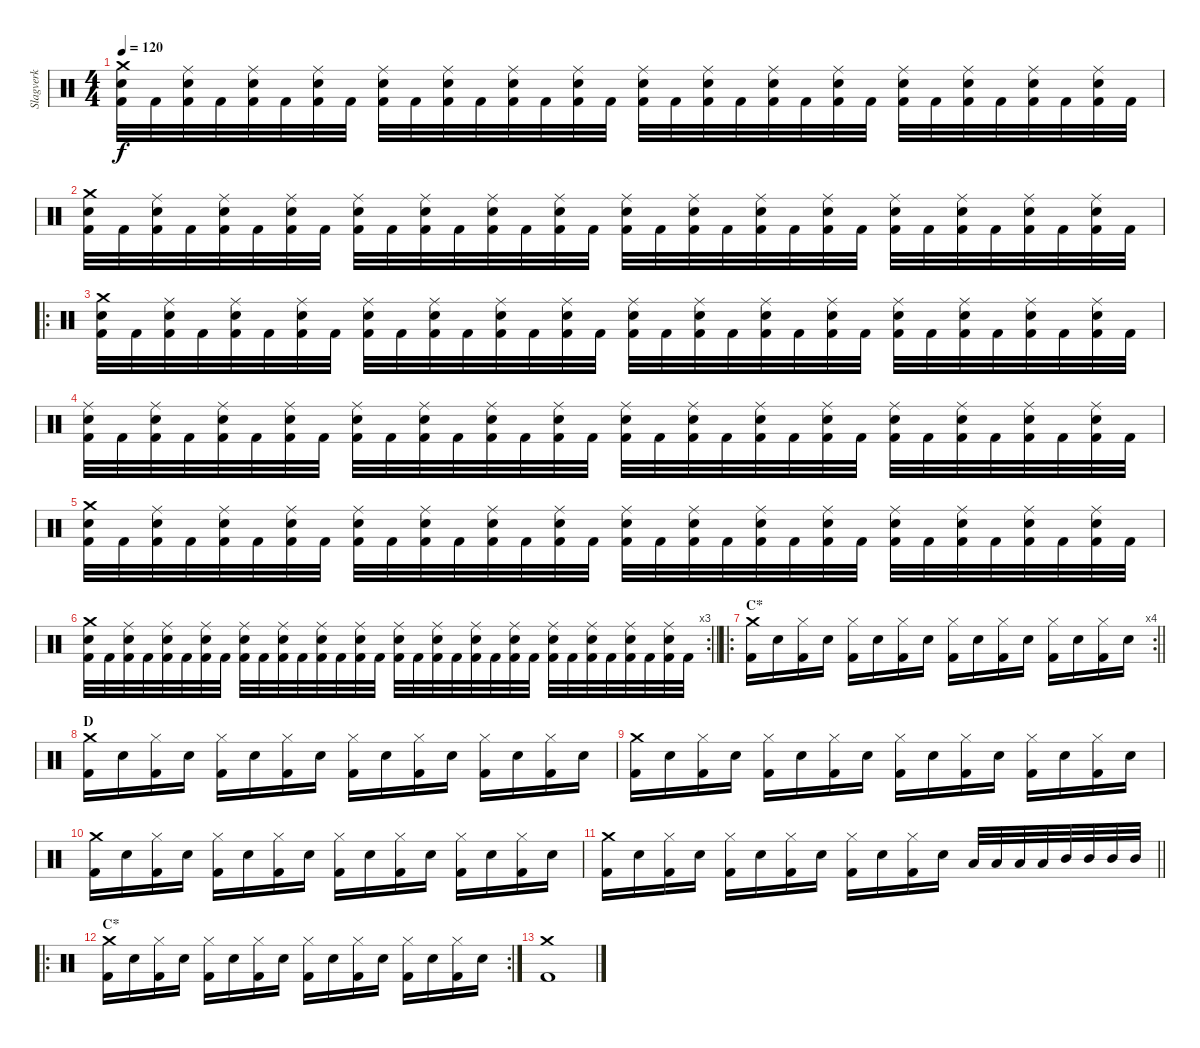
\track ("Slagverk" "Slagverk") {instrument percussion}
\staff {score}
\articulation defaults
\ts (4 4)
\tempo 120
\clef neutral
\ks c
("Crash medium (hit)" "Electric Snare (hit)" "Kick (hit) 2").32{dy f} "Kick (hit) 2".32 ("Ride (middle)" "Electric Snare (hit)" "Kick (hit) 2").32 "Kick (hit) 2".32 ("Ride (middle)" "Electric Snare (hit)" "Kick (hit) 2").32 "Kick (hit) 2".32 ("Ride (middle)" "Electric Snare (hit)" "Kick (hit) 2").32 "Kick (hit) 2".32 ("Ride (middle)" "Electric Snare (hit)" "Kick (hit) 2").32 "Kick (hit) 2".32 ("Ride (middle)" "Electric Snare (hit)" "Kick (hit) 2").32 "Kick (hit) 2".32 ("Ride (middle)" "Electric Snare (hit)" "Kick (hit) 2").32 "Kick (hit) 2".32 ("Ride (middle)" "Electric Snare (hit)" "Kick (hit) 2").32 "Kick (hit) 2".32 ("Ride (middle)" "Electric Snare (hit)" "Kick (hit) 2").32 "Kick (hit) 2".32 ("Ride (middle)" "Electric Snare (hit)" "Kick (hit) 2").32 "Kick (hit) 2".32 ("Ride (middle)" "Electric Snare (hit)" "Kick (hit) 2").32 "Kick (hit) 2".32 ("Ride (middle)" "Electric Snare (hit)" "Kick (hit) 2").32 "Kick (hit) 2".32 ("Ride (middle)" "Electric Snare (hit)" "Kick (hit) 2").32 "Kick (hit) 2".32 ("Ride (middle)" "Electric Snare (hit)" "Kick (hit) 2").32 "Kick (hit) 2".32 ("Ride (middle)" "Electric Snare (hit)" "Kick (hit) 2").32 "Kick (hit) 2".32 ("Ride (middle)" "Electric Snare (hit)" "Kick (hit) 2").32 "Kick (hit) 2".32 |
("Crash medium (hit)" "Electric Snare (hit)" "Kick (hit) 2").32 "Kick (hit) 2".32 ("Ride (middle)" "Electric Snare (hit)" "Kick (hit) 2").32 "Kick (hit) 2".32 ("Ride (middle)" "Electric Snare (hit)" "Kick (hit) 2").32 "Kick (hit) 2".32 ("Ride (middle)" "Electric Snare (hit)" "Kick (hit) 2").32 "Kick (hit) 2".32 ("Ride (middle)" "Electric Snare (hit)" "Kick (hit) 2").32 "Kick (hit) 2".32 ("Ride (middle)" "Electric Snare (hit)" "Kick (hit) 2").32 "Kick (hit) 2".32 ("Ride (middle)" "Electric Snare (hit)" "Kick (hit) 2").32 "Kick (hit) 2".32 ("Ride (middle)" "Electric Snare (hit)" "Kick (hit) 2").32 "Kick (hit) 2".32 ("Ride (middle)" "Electric Snare (hit)" "Kick (hit) 2").32 "Kick (hit) 2".32 ("Ride (middle)" "Electric Snare (hit)" "Kick (hit) 2").32 "Kick (hit) 2".32 ("Ride (middle)" "Electric Snare (hit)" "Kick (hit) 2").32 "Kick (hit) 2".32 ("Ride (middle)" "Electric Snare (hit)" "Kick (hit) 2").32 "Kick (hit) 2".32 ("Ride (middle)" "Electric Snare (hit)" "Kick (hit) 2").32 "Kick (hit) 2".32 ("Ride (middle)" "Electric Snare (hit)" "Kick (hit) 2").32 "Kick (hit) 2".32 ("Ride (middle)" "Electric Snare (hit)" "Kick (hit) 2").32 "Kick (hit) 2".32 ("Ride (middle)" "Electric Snare (hit)" "Kick (hit) 2").32 "Kick (hit) 2".32 |
\ro
("Crash medium (hit)" "Electric Snare (hit)" "Kick (hit) 2").32 "Kick (hit) 2".32 ("Ride (middle)" "Electric Snare (hit)" "Kick (hit) 2").32 "Kick (hit) 2".32 ("Ride (middle)" "Electric Snare (hit)" "Kick (hit) 2").32 "Kick (hit) 2".32 ("Ride (middle)" "Electric Snare (hit)" "Kick (hit) 2").32 "Kick (hit) 2".32 ("Ride (middle)" "Electric Snare (hit)" "Kick (hit) 2").32 "Kick (hit) 2".32 ("Ride (middle)" "Electric Snare (hit)" "Kick (hit) 2").32 "Kick (hit) 2".32 ("Ride (middle)" "Electric Snare (hit)" "Kick (hit) 2").32 "Kick (hit) 2".32 ("Ride (middle)" "Electric Snare (hit)" "Kick (hit) 2").32 "Kick (hit) 2".32 ("Ride (middle)" "Electric Snare (hit)" "Kick (hit) 2").32 "Kick (hit) 2".32 ("Ride (middle)" "Electric Snare (hit)" "Kick (hit) 2").32 "Kick (hit) 2".32 ("Ride (middle)" "Electric Snare (hit)" "Kick (hit) 2").32 "Kick (hit) 2".32 ("Ride (middle)" "Electric Snare (hit)" "Kick (hit) 2").32 "Kick (hit) 2".32 ("Ride (middle)" "Electric Snare (hit)" "Kick (hit) 2").32 "Kick (hit) 2".32 ("Ride (middle)" "Electric Snare (hit)" "Kick (hit) 2").32 "Kick (hit) 2".32 ("Ride (middle)" "Electric Snare (hit)" "Kick (hit) 2").32 "Kick (hit) 2".32 ("Ride (middle)" "Electric Snare (hit)" "Kick (hit) 2").32 "Kick (hit) 2".32 |
("Ride (middle)" "Electric Snare (hit)" "Kick (hit) 2").32 "Kick (hit) 2".32 ("Ride (middle)" "Electric Snare (hit)" "Kick (hit) 2").32 "Kick (hit) 2".32 ("Ride (middle)" "Electric Snare (hit)" "Kick (hit) 2").32 "Kick (hit) 2".32 ("Ride (middle)" "Electric Snare (hit)" "Kick (hit) 2").32 "Kick (hit) 2".32 ("Ride (middle)" "Electric Snare (hit)" "Kick (hit) 2").32 "Kick (hit) 2".32 ("Ride (middle)" "Electric Snare (hit)" "Kick (hit) 2").32 "Kick (hit) 2".32 ("Ride (middle)" "Electric Snare (hit)" "Kick (hit) 2").32 "Kick (hit) 2".32 ("Ride (middle)" "Electric Snare (hit)" "Kick (hit) 2").32 "Kick (hit) 2".32 ("Ride (middle)" "Electric Snare (hit)" "Kick (hit) 2").32 "Kick (hit) 2".32 ("Ride (middle)" "Electric Snare (hit)" "Kick (hit) 2").32 "Kick (hit) 2".32 ("Ride (middle)" "Electric Snare (hit)" "Kick (hit) 2").32 "Kick (hit) 2".32 ("Ride (middle)" "Electric Snare (hit)" "Kick (hit) 2").32 "Kick (hit) 2".32 ("Ride (middle)" "Electric Snare (hit)" "Kick (hit) 2").32 "Kick (hit) 2".32 ("Ride (middle)" "Electric Snare (hit)" "Kick (hit) 2").32 "Kick (hit) 2".32 ("Ride (middle)" "Electric Snare (hit)" "Kick (hit) 2").32 "Kick (hit) 2".32 ("Ride (middle)" "Electric Snare (hit)" "Kick (hit) 2").32 "Kick (hit) 2".32 |
("Crash medium (hit)" "Electric Snare (hit)" "Kick (hit) 2").32 "Kick (hit) 2".32 ("Ride (middle)" "Electric Snare (hit)" "Kick (hit) 2").32 "Kick (hit) 2".32 ("Ride (middle)" "Electric Snare (hit)" "Kick (hit) 2").32 "Kick (hit) 2".32 ("Ride (middle)" "Electric Snare (hit)" "Kick (hit) 2").32 "Kick (hit) 2".32 ("Ride (middle)" "Electric Snare (hit)" "Kick (hit) 2").32 "Kick (hit) 2".32 ("Ride (middle)" "Electric Snare (hit)" "Kick (hit) 2").32 "Kick (hit) 2".32 ("Ride (middle)" "Electric Snare (hit)" "Kick (hit) 2").32 "Kick (hit) 2".32 ("Ride (middle)" "Electric Snare (hit)" "Kick (hit) 2").32 "Kick (hit) 2".32 ("Ride (middle)" "Electric Snare (hit)" "Kick (hit) 2").32 "Kick (hit) 2".32 ("Ride (middle)" "Electric Snare (hit)" "Kick (hit) 2").32 "Kick (hit) 2".32 ("Ride (middle)" "Electric Snare (hit)" "Kick (hit) 2").32 "Kick (hit) 2".32 ("Ride (middle)" "Electric Snare (hit)" "Kick (hit) 2").32 "Kick (hit) 2".32 ("Ride (middle)" "Electric Snare (hit)" "Kick (hit) 2").32 "Kick (hit) 2".32 ("Ride (middle)" "Electric Snare (hit)" "Kick (hit) 2").32 "Kick (hit) 2".32 ("Ride (middle)" "Electric Snare (hit)" "Kick (hit) 2").32 "Kick (hit) 2".32 ("Ride (middle)" "Electric Snare (hit)" "Kick (hit) 2").32 "Kick (hit) 2".32 |
\rc 3
\barLineRight lightlight
("Crash medium (hit)" "Electric Snare (hit)" "Kick (hit) 2").32 "Kick (hit) 2".32 ("Ride (middle)" "Electric Snare (hit)" "Kick (hit) 2").32 "Kick (hit) 2".32 ("Ride (middle)" "Electric Snare (hit)" "Kick (hit) 2").32 "Kick (hit) 2".32 ("Ride (middle)" "Electric Snare (hit)" "Kick (hit) 2").32 "Kick (hit) 2".32 ("Ride (middle)" "Electric Snare (hit)" "Kick (hit) 2").32 "Kick (hit) 2".32 ("Ride (middle)" "Electric Snare (hit)" "Kick (hit) 2").32 "Kick (hit) 2".32 ("Ride (middle)" "Electric Snare (hit)" "Kick (hit) 2").32 "Kick (hit) 2".32 ("Ride (middle)" "Electric Snare (hit)" "Kick (hit) 2").32 "Kick (hit) 2".32 ("Ride (middle)" "Electric Snare (hit)" "Kick (hit) 2").32 "Kick (hit) 2".32 ("Ride (middle)" "Electric Snare (hit)" "Kick (hit) 2").32 "Kick (hit) 2".32 ("Ride (middle)" "Electric Snare (hit)" "Kick (hit) 2").32 "Kick (hit) 2".32 ("Ride (middle)" "Electric Snare (hit)" "Kick (hit) 2").32 "Kick (hit) 2".32 ("Ride (middle)" "Electric Snare (hit)" "Kick (hit) 2").32 "Kick (hit) 2".32 ("Ride (middle)" "Electric Snare (hit)" "Kick (hit) 2").32 "Kick (hit) 2".32 ("Ride (middle)" "Electric Snare (hit)" "Kick (hit) 2").32 "Kick (hit) 2".32 ("Ride (middle)" "Electric Snare (hit)" "Kick (hit) 2").32 "Kick (hit) 2".32 |
\ro
\rc 4
\section ("" "C*")
\barLineRight lightlight
("Crash medium (hit)" "Kick (hit) 2").16 "Electric Snare (hit)".16 ("Hi-Hat (closed)" "Kick (hit) 2").16 "Electric Snare (hit)".16 ("Hi-Hat (closed)" "Kick (hit) 2").16 "Electric Snare (hit)".16 ("Hi-Hat (closed)" "Kick (hit) 2").16 "Electric Snare (hit)".16 ("Hi-Hat (closed)" "Kick (hit) 2").16 "Electric Snare (hit)".16 ("Hi-Hat (closed)" "Kick (hit) 2").16 "Electric Snare (hit)".16 ("Hi-Hat (closed)" "Kick (hit) 2").16 "Electric Snare (hit)".16 ("Hi-Hat (closed)" "Kick (hit) 2").16 "Electric Snare (hit)".16 |
\section ("" "D")
("Crash medium (hit)" "Kick (hit) 2").16 "Electric Snare (hit)".16 ("Hi-Hat (closed)" "Kick (hit) 2").16 "Electric Snare (hit)".16 ("Hi-Hat (closed)" "Kick (hit) 2").16 "Electric Snare (hit)".16 ("Hi-Hat (closed)" "Kick (hit) 2").16 "Electric Snare (hit)".16 ("Hi-Hat (closed)" "Kick (hit) 2").16 "Electric Snare (hit)".16 ("Hi-Hat (closed)" "Kick (hit) 2").16 "Electric Snare (hit)".16 ("Hi-Hat (closed)" "Kick (hit) 2").16 "Electric Snare (hit)".16 ("Hi-Hat (closed)" "Kick (hit) 2").16 "Electric Snare (hit)".16 |
("Crash medium (hit)" "Kick (hit) 2").16 "Electric Snare (hit)".16 ("Hi-Hat (closed)" "Kick (hit) 2").16 "Electric Snare (hit)".16 ("Hi-Hat (closed)" "Kick (hit) 2").16 "Electric Snare (hit)".16 ("Hi-Hat (closed)" "Kick (hit) 2").16 "Electric Snare (hit)".16 ("Hi-Hat (closed)" "Kick (hit) 2").16 "Electric Snare (hit)".16 ("Hi-Hat (closed)" "Kick (hit) 2").16 "Electric Snare (hit)".16 ("Hi-Hat (closed)" "Kick (hit) 2").16 "Electric Snare (hit)".16 ("Hi-Hat (closed)" "Kick (hit) 2").16 "Electric Snare (hit)".16 |
("Crash medium (hit)" "Kick (hit) 2").16 "Electric Snare (hit)".16 ("Hi-Hat (closed)" "Kick (hit) 2").16 "Electric Snare (hit)".16 ("Hi-Hat (closed)" "Kick (hit) 2").16 "Electric Snare (hit)".16 ("Hi-Hat (closed)" "Kick (hit) 2").16 "Electric Snare (hit)".16 ("Hi-Hat (closed)" "Kick (hit) 2").16 "Electric Snare (hit)".16 ("Hi-Hat (closed)" "Kick (hit) 2").16 "Electric Snare (hit)".16 ("Hi-Hat (closed)" "Kick (hit) 2").16 "Electric Snare (hit)".16 ("Hi-Hat (closed)" "Kick (hit) 2").16 "Electric Snare (hit)".16 |
\barLineRight lightlight
("Crash medium (hit)" "Kick (hit) 2").16 "Electric Snare (hit)".16 ("Hi-Hat (closed)" "Kick (hit) 2").16 "Electric Snare (hit)".16 ("Hi-Hat (closed)" "Kick (hit) 2").16 "Electric Snare (hit)".16 ("Hi-Hat (closed)" "Kick (hit) 2").16 "Electric Snare (hit)".16 ("Hi-Hat (closed)" "Kick (hit) 2").16 "Electric Snare (hit)".16 ("Hi-Hat (closed)" "Kick (hit) 2").16 "Electric Snare (hit)".16 "Low Tom (hit)".32 "Low Tom (hit)".32 "Low Tom (hit)".32 "Low Tom (hit)".32 "Mid Tom (hit)".32 "Mid Tom (hit)".32 "Mid Tom (hit)".32 "Mid Tom (hit)".32 |
\ro
\rc 2
\section ("" "C*")
("Crash medium (hit)" "Kick (hit) 2").16 "Electric Snare (hit)".16 ("Hi-Hat (closed)" "Kick (hit) 2").16 "Electric Snare (hit)".16 ("Hi-Hat (closed)" "Kick (hit) 2").16 "Electric Snare (hit)".16 ("Hi-Hat (closed)" "Kick (hit) 2").16 "Electric Snare (hit)".16 ("Hi-Hat (closed)" "Kick (hit) 2").16 "Electric Snare (hit)".16 ("Hi-Hat (closed)" "Kick (hit) 2").16 "Electric Snare (hit)".16 ("Hi-Hat (closed)" "Kick (hit) 2").16 "Electric Snare (hit)".16 ("Hi-Hat (closed)" "Kick (hit) 2").16 "Electric Snare (hit)".16 |
("Crash medium (hit)" "Kick (hit) 2").1
